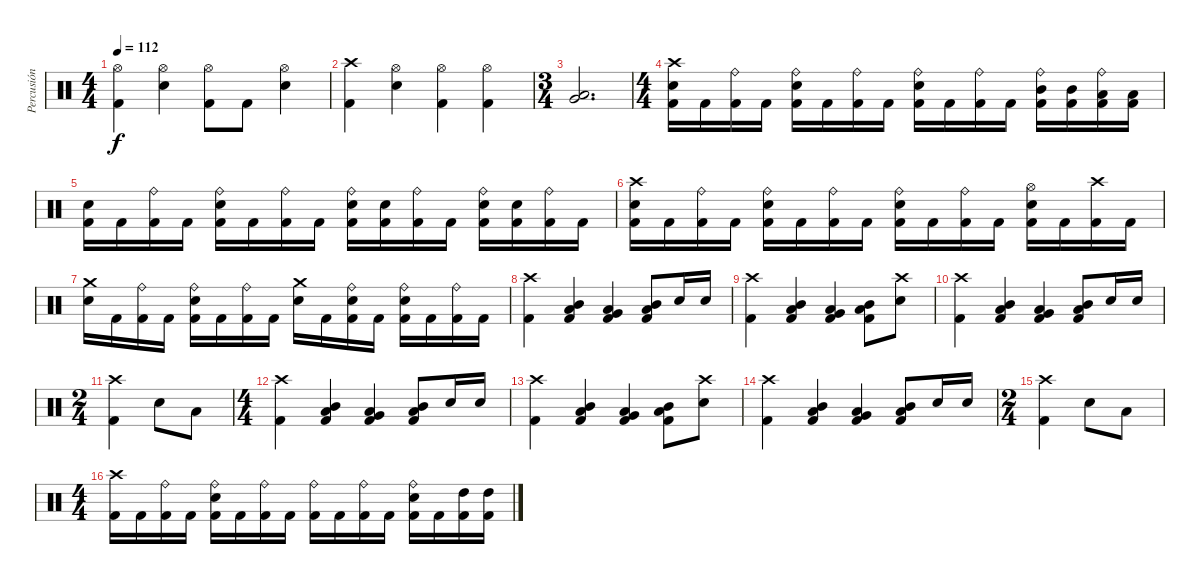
\track ("Percusión" "Percusión") {instrument percussion}
\staff {score}
\articulation defaults
\ts (4 4)
\tempo 112
\clef neutral
\ks c
("Hi-Hat (open)" "Kick (hit) 2").4{dy f} ("Hi-Hat (open)" "Snare (hit) 2").4 ("Hi-Hat (open)" "Kick (hit) 2").8 "Kick (hit) 2".8 ("Hi-Hat (open)" "Snare (hit) 2").4 |
("Crash high (hit)" "Kick (hit) 2").4 ("Hi-Hat (open)" "Snare (hit) 2").4 ("Hi-Hat (open)" "Kick (hit) 2").4 ("Hi-Hat (open)" "Kick (hit) 2").4 |
\ts (3 4)
("Very Low Tom (hit)" "Low Tom (hit)").2{d} |
\ts (4 4)
("Snare (hit) 2" "Crash high (hit)" "Kick (hit) 2").16 "Kick (hit) 2".16 ("Ride (bell)" "Kick (hit) 2").16 "Kick (hit) 2".16 ("Ride (bell)" "Snare (hit) 2" "Kick (hit) 2").16 "Kick (hit) 2".16 ("Ride (bell)" "Kick (hit) 2").16 "Kick (hit) 2".16 ("Ride (bell)" "Snare (hit) 2" "Kick (hit) 2").16 "Kick (hit) 2".16 ("Ride (bell)" "Kick (hit) 2").16 "Kick (hit) 2".16 ("Ride (bell)" "Mid Tom (hit)" "Kick (hit) 2").16 ("Mid Tom (hit)" "Kick (hit) 2").16 ("Ride (bell)" "Low Tom (hit)" "Kick (hit) 2").16 ("Low Tom (hit)" "Kick (hit) 2").16 |
("Snare (hit) 2" "Kick (hit) 2").16 "Kick (hit) 2".16 ("Ride (bell)" "Kick (hit) 2").16 "Kick (hit) 2".16 ("Ride (bell)" "Snare (hit) 2" "Kick (hit) 2").16 "Kick (hit) 2".16 ("Ride (bell)" "Kick (hit) 2").16 "Kick (hit) 2".16 ("Ride (bell)" "Snare (hit) 2" "Kick (hit) 2").16 ("Snare (hit) 2" "Kick (hit) 2").16 ("Ride (bell)" "Kick (hit) 2").16 "Kick (hit) 2".16 ("Ride (bell)" "Snare (hit) 2" "Kick (hit) 2").16 ("Snare (hit) 2" "Kick (hit) 2").16 ("Ride (bell)" "Kick (hit) 2").16 "Kick (hit) 2".16 |
("Snare (hit) 2" "Crash high (hit)" "Kick (hit) 2").16 "Kick (hit) 2".16 ("Ride (bell)" "Kick (hit) 2").16 "Kick (hit) 2".16 ("Ride (bell)" "Snare (hit) 2" "Kick (hit) 2").16 "Kick (hit) 2".16 ("Ride (bell)" "Kick (hit) 2").16 "Kick (hit) 2".16 ("Ride (bell)" "Snare (hit) 2" "Kick (hit) 2").16 "Kick (hit) 2".16 ("Ride (bell)" "Kick (hit) 2").16 "Kick (hit) 2".16 ("Hi-Hat (open)" "Snare (hit) 2" "Kick (hit) 2").16 "Kick (hit) 2".16 ("Kick (hit) 2" "Crash high (hit)").16 "Kick (hit) 2".16 |
("Snare (hit) 2" "Crash medium (hit)").16 "Kick (hit) 2".16 ("Ride (bell)" "Kick (hit) 2").16 "Kick (hit) 2".16 ("Ride (bell)" "Snare (hit) 2" "Kick (hit) 2").16 "Kick (hit) 2".16 ("Ride (bell)" "Kick (hit) 2").16 "Kick (hit) 2".16 ("Snare (hit) 2" "Crash medium (hit)").16 "Kick (hit) 2".16 ("Ride (bell)" "Snare (hit) 2" "Kick (hit) 2").16 "Kick (hit) 2".16 ("Ride (bell)" "Snare (hit) 2" "Kick (hit) 2").16 "Kick (hit) 2".16 ("Ride (bell)" "Kick (hit) 2").16 "Kick (hit) 2".16 |
("Kick (hit) 2" "Crash high (hit)").4 ("Mid Tom (hit)" "Low Tom (hit)" "Kick (hit) 2").4 ("Very Low Tom (hit)" "Low Tom (hit)" "Kick (hit) 2").4 ("Mid Tom (hit)" "Low Tom (hit)" "Kick (hit) 2").8 "Snare (hit) 2".16 "Snare (hit) 2".16 |
("Kick (hit) 2" "Crash high (hit)").4 ("Mid Tom (hit)" "Low Tom (hit)" "Kick (hit) 2").4 ("Very Low Tom (hit)" "Low Tom (hit)" "Kick (hit) 2").4 ("Mid Tom (hit)" "Low Tom (hit)" "Kick (hit) 2").8 ("Snare (hit) 2" "Crash high (hit)").8 |
("Kick (hit) 2" "Crash high (hit)").4 ("Mid Tom (hit)" "Low Tom (hit)" "Kick (hit) 2").4 ("Very Low Tom (hit)" "Low Tom (hit)" "Kick (hit) 2").4 ("Mid Tom (hit)" "Low Tom (hit)" "Kick (hit) 2").8 "Snare (hit) 2".16 "Snare (hit) 2".16 |
\ts (2 4)
("Kick (hit) 2" "Crash high (hit)").4 "Snare (hit) 2".8 "Low Tom (hit)".8 |
\ts (4 4)
("Kick (hit) 2" "Crash high (hit)").4 ("Mid Tom (hit)" "Low Tom (hit)" "Kick (hit) 2").4 ("Very Low Tom (hit)" "Low Tom (hit)" "Kick (hit) 2").4 ("Mid Tom (hit)" "Low Tom (hit)" "Kick (hit) 2").8 "Snare (hit) 2".16 "Snare (hit) 2".16 |
("Kick (hit) 2" "Crash high (hit)").4 ("Mid Tom (hit)" "Low Tom (hit)" "Kick (hit) 2").4 ("Very Low Tom (hit)" "Low Tom (hit)" "Kick (hit) 2").4 ("Mid Tom (hit)" "Low Tom (hit)" "Kick (hit) 2").8 ("Snare (hit) 2" "Crash high (hit)").8 |
("Kick (hit) 2" "Crash high (hit)").4 ("Mid Tom (hit)" "Low Tom (hit)" "Kick (hit) 2").4 ("Very Low Tom (hit)" "Low Tom (hit)" "Kick (hit) 2").4 ("Mid Tom (hit)" "Low Tom (hit)" "Kick (hit) 2").8 "Snare (hit) 2".16 "Snare (hit) 2".16 |
\ts (2 4)
("Kick (hit) 2" "Crash high (hit)").4 "Snare (hit) 2".8 "Low Tom (hit)".8 |
\ts (4 4)
("Crash high (hit)" "Kick (hit) 2").16 "Kick (hit) 2".16 ("Ride (bell)" "Kick (hit) 2").16 "Kick (hit) 2".16 ("Ride (bell)" "Snare (hit) 2" "Kick (hit) 2").16 "Kick (hit) 2".16 ("Ride (bell)" "Kick (hit) 2").16 "Kick (hit) 2".16 ("Ride (bell)" "Kick (hit) 2").16 "Kick (hit) 2".16 ("Ride (bell)" "Kick (hit) 2").16 "Kick (hit) 2".16 ("Ride (bell)" "Snare (hit) 2" "Kick (hit) 2").16 "Kick (hit) 2".16 ("High Tom (hit)" "Kick (hit) 2").16 ("High Tom (hit)" "Kick (hit) 2").16
